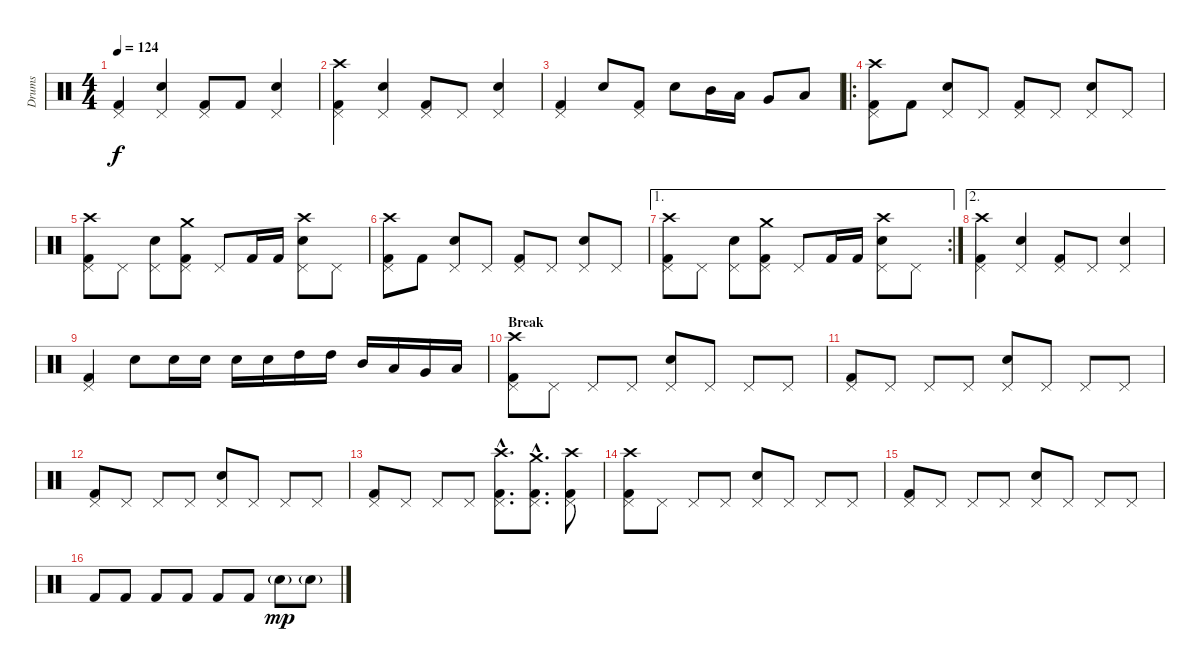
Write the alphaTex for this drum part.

\track ("Drums" "Drums") {instrument percussion}
\staff {score}
\articulation defaults
\ts (4 4)
\tempo 124
\clef neutral
\ks c
("Kick (hit) 2" "Pedal Hi-Hat (hit)").4{dy f} ("Snare (hit) 2" "Pedal Hi-Hat (hit)").4 ("Kick (hit) 2" "Pedal Hi-Hat (hit)").8 "Kick (hit) 2".8 ("Snare (hit) 2" "Pedal Hi-Hat (hit)").4 |
("Kick (hit) 2" "Pedal Hi-Hat (hit)" "Crash high (hit)").4 ("Snare (hit) 2" "Pedal Hi-Hat (hit)").4 ("Kick (hit) 2" "Pedal Hi-Hat (hit)").8 "Pedal Hi-Hat (hit)".8 ("Snare (hit) 2" "Pedal Hi-Hat (hit)").4 |
("Kick (hit) 2" "Pedal Hi-Hat (hit)").4 "Snare (hit) 2".8 ("Kick (hit) 2" "Pedal Hi-Hat (hit)").8 "Snare (hit) 2".8 "Mid Tom (hit)".16 "Low Tom (hit)".16 "Very Low Tom (hit)".8 "Low Floor Tom (hit)".8 |
\ro
("Kick (hit) 2" "Pedal Hi-Hat (hit)" "Crash high (hit)").8 "Kick (hit) 2".8 ("Snare (hit) 2" "Pedal Hi-Hat (hit)").8 "Pedal Hi-Hat (hit)".8 ("Kick (hit) 2" "Pedal Hi-Hat (hit)").8 "Pedal Hi-Hat (hit)".8 ("Snare (hit) 2" "Pedal Hi-Hat (hit)").8 "Pedal Hi-Hat (hit)".8 |
("Kick (hit) 2" "Pedal Hi-Hat (hit)" "Crash high (hit)").8 "Pedal Hi-Hat (hit)".8 ("Snare (hit) 2" "Pedal Hi-Hat (hit)").8 ("Kick (hit) 2" "Pedal Hi-Hat (hit)" "Crash medium (hit)").8 "Pedal Hi-Hat (hit)".8 "Kick (hit) 2".16 "Kick (hit) 2".16 ("Snare (hit) 2" "Pedal Hi-Hat (hit)" "Crash high (hit)").8 "Pedal Hi-Hat (hit)".8 |
("Kick (hit) 2" "Pedal Hi-Hat (hit)" "Crash high (hit)").8 "Kick (hit) 2".8 ("Snare (hit) 2" "Pedal Hi-Hat (hit)").8 "Pedal Hi-Hat (hit)".8 ("Kick (hit) 2" "Pedal Hi-Hat (hit)").8 "Pedal Hi-Hat (hit)".8 ("Snare (hit) 2" "Pedal Hi-Hat (hit)").8 "Pedal Hi-Hat (hit)".8 |
\ae 1
\rc 2
("Kick (hit) 2" "Pedal Hi-Hat (hit)" "Crash high (hit)").8 "Pedal Hi-Hat (hit)".8 ("Snare (hit) 2" "Pedal Hi-Hat (hit)").8 ("Kick (hit) 2" "Pedal Hi-Hat (hit)" "Crash medium (hit)").8 "Pedal Hi-Hat (hit)".8 "Kick (hit) 2".16 "Kick (hit) 2".16 ("Snare (hit) 2" "Pedal Hi-Hat (hit)" "Crash high (hit)").8 "Pedal Hi-Hat (hit)".8 |
\ae 2
("Kick (hit) 2" "Pedal Hi-Hat (hit)" "Crash high (hit)").4 ("Snare (hit) 2" "Pedal Hi-Hat (hit)").4 ("Kick (hit) 2" "Pedal Hi-Hat (hit)").8 "Pedal Hi-Hat (hit)".8 ("Snare (hit) 2" "Pedal Hi-Hat (hit)").4 |
("Kick (hit) 2" "Pedal Hi-Hat (hit)").4 "Snare (hit) 2".8 "Snare (hit) 2".16 "Snare (hit) 2".16 "Snare (hit) 2".16 "Snare (hit) 2".16 "High Tom (hit)".16 "High Tom (hit)".16 "Mid Tom (hit)".16 "Low Tom (hit)".16 "Very Low Tom (hit)".16 "Low Floor Tom (hit)".16 |
\section ("" "Break")
("Kick (hit) 2" "Pedal Hi-Hat (hit)" "Crash high (hit)").8 "Pedal Hi-Hat (hit)".8 "Pedal Hi-Hat (hit)".8 "Pedal Hi-Hat (hit)".8 ("Snare (hit) 2" "Pedal Hi-Hat (hit)").8 "Pedal Hi-Hat (hit)".8 "Pedal Hi-Hat (hit)".8 "Pedal Hi-Hat (hit)".8 |
("Kick (hit) 2" "Pedal Hi-Hat (hit)").8 "Pedal Hi-Hat (hit)".8 "Pedal Hi-Hat (hit)".8 "Pedal Hi-Hat (hit)".8 ("Snare (hit) 2" "Pedal Hi-Hat (hit)").8 "Pedal Hi-Hat (hit)".8 "Pedal Hi-Hat (hit)".8 "Pedal Hi-Hat (hit)".8 |
("Kick (hit) 2" "Pedal Hi-Hat (hit)").8 "Pedal Hi-Hat (hit)".8 "Pedal Hi-Hat (hit)".8 "Pedal Hi-Hat (hit)".8 ("Snare (hit) 2" "Pedal Hi-Hat (hit)").8 "Pedal Hi-Hat (hit)".8 "Pedal Hi-Hat (hit)".8 "Pedal Hi-Hat (hit)".8 |
("Kick (hit) 2" "Pedal Hi-Hat (hit)").8 "Pedal Hi-Hat (hit)".8 "Pedal Hi-Hat (hit)".8 "Pedal Hi-Hat (hit)".8 ("Kick (hit) 2"{hac} "Pedal Hi-Hat (hit)"{hac} "Crash high (hit)"{hac}).8{d} ("Kick (hit) 2"{hac} "Pedal Hi-Hat (hit)"{hac} "Crash medium (hit)"{hac}).8{d} ("Kick (hit) 2" "Pedal Hi-Hat (hit)" "Crash high (hit)").8 |
("Kick (hit) 2" "Pedal Hi-Hat (hit)" "Crash high (hit)").8 "Pedal Hi-Hat (hit)".8 "Pedal Hi-Hat (hit)".8 "Pedal Hi-Hat (hit)".8 ("Snare (hit) 2" "Pedal Hi-Hat (hit)").8 "Pedal Hi-Hat (hit)".8 "Pedal Hi-Hat (hit)".8 "Pedal Hi-Hat (hit)".8 |
("Kick (hit) 2" "Pedal Hi-Hat (hit)").8 "Pedal Hi-Hat (hit)".8 "Pedal Hi-Hat (hit)".8 "Pedal Hi-Hat (hit)".8 ("Snare (hit) 2" "Pedal Hi-Hat (hit)").8 "Pedal Hi-Hat (hit)".8 "Pedal Hi-Hat (hit)".8 "Pedal Hi-Hat (hit)".8 |
"Kick (hit) 2".8 "Kick (hit) 2".8 "Kick (hit) 2".8 "Kick (hit) 2".8 "Kick (hit) 2".8 "Kick (hit) 2".8 "Snare (hit) 2"{g}.8{dy mp} "Snare (hit) 2"{g}.8
